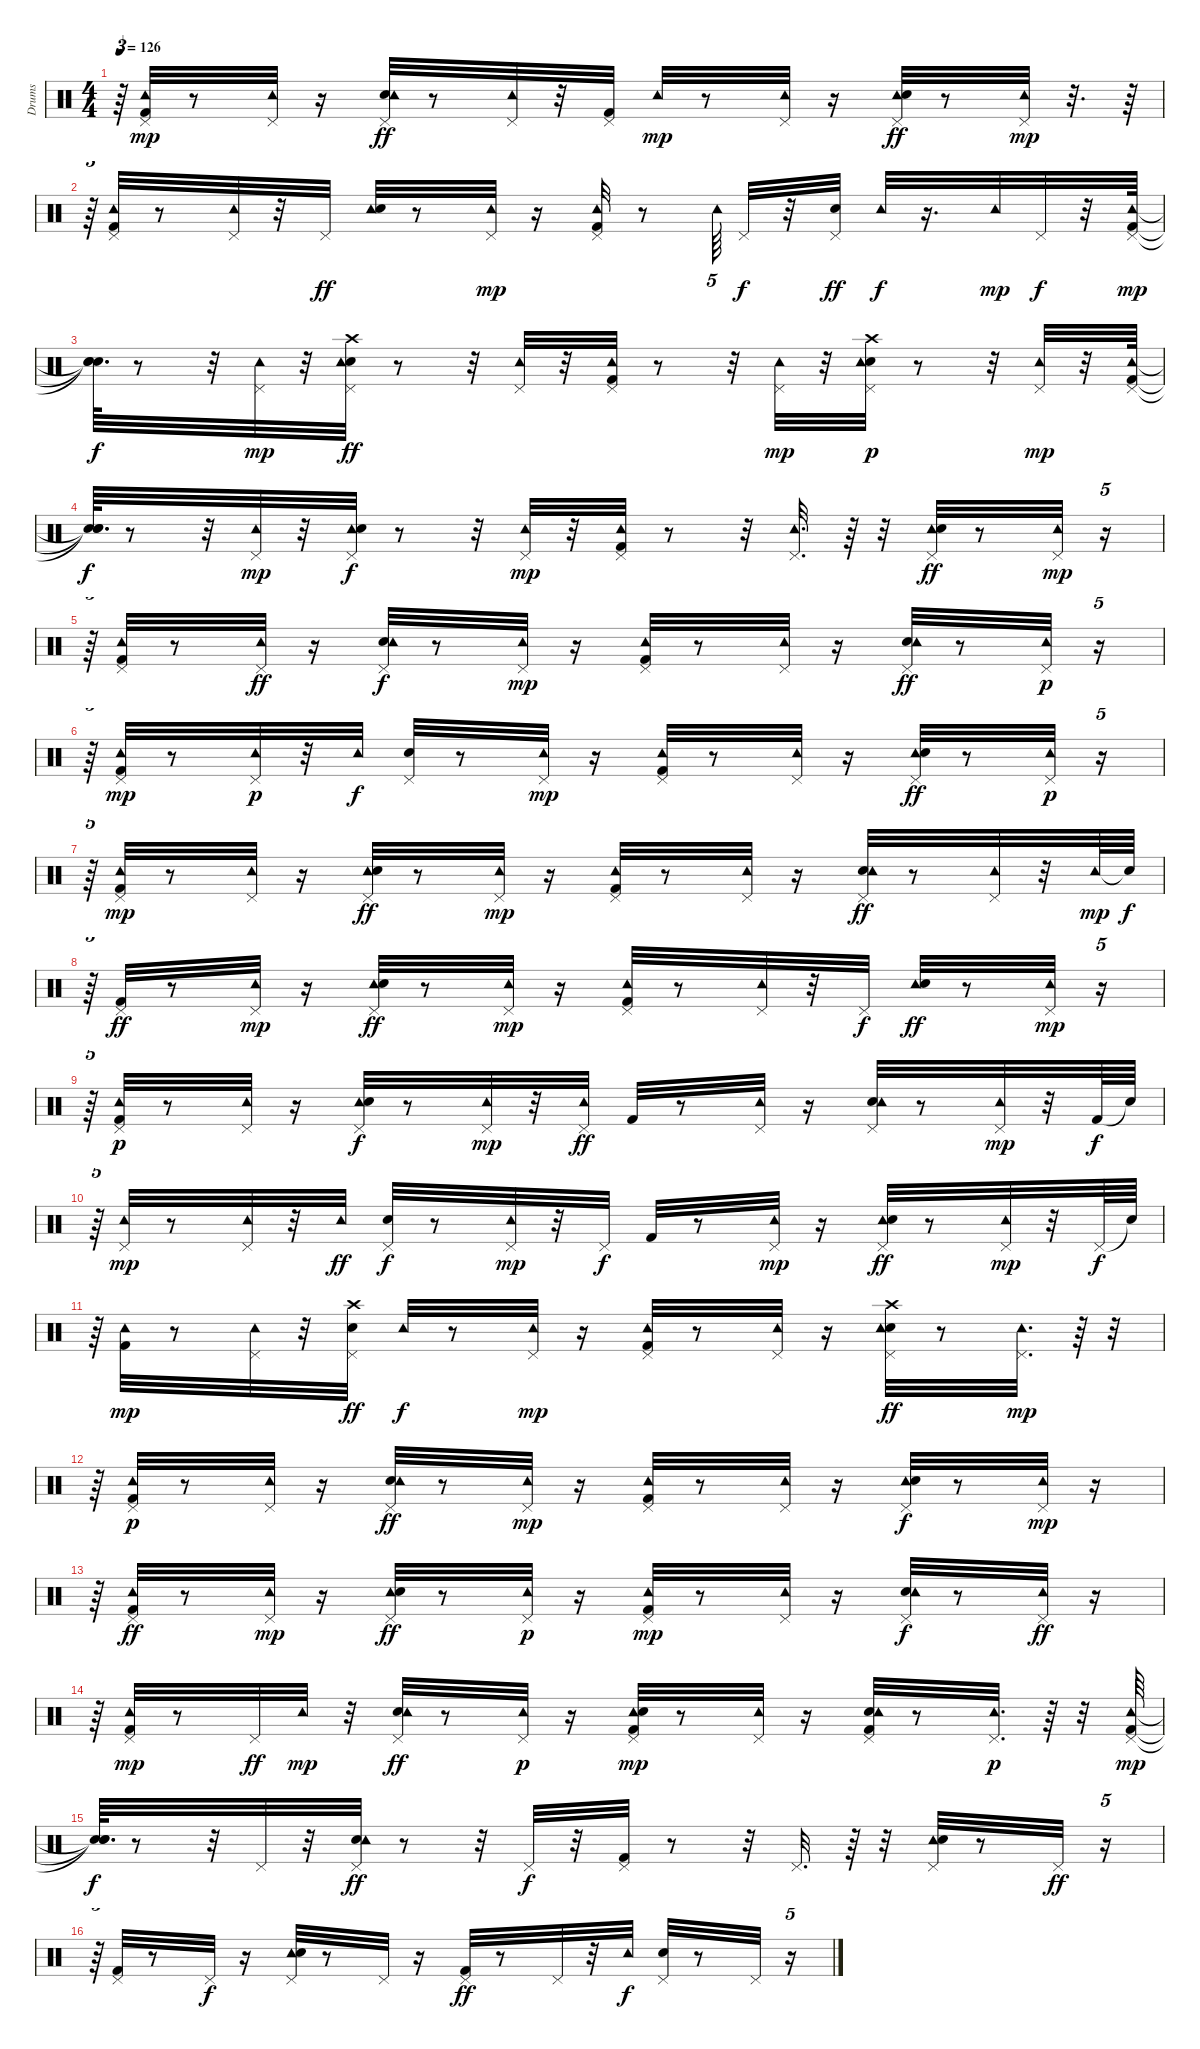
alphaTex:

\track ("Drums" "Drums") {instrument percussion}
\staff {score}
\articulation defaults
\ts (4 4)
\tempo 126
\clef neutral
\ks c
r.64{tu (3 2) dy mp} ("Kick (hit) 2" "Pedal Hi-Hat (hit)" "Tambourine (hit)").32 r.8 ("Tambourine (hit)" "Pedal Hi-Hat (hit)").32 r.16 ("Electric Snare (hit)" "Tambourine (hit)" "Pedal Hi-Hat (hit)").32{dy ff} r.8 ("Tambourine (hit)" "Pedal Hi-Hat (hit)").32 r.32 ("Kick (hit) 2" "Pedal Hi-Hat (hit)").32 "Tambourine (hit)".32{dy mp} r.8 ("Pedal Hi-Hat (hit)" "Tambourine (hit)").32 r.16 ("Tambourine (hit)" "Pedal Hi-Hat (hit)" "Electric Snare (hit)").32{dy ff} r.8 ("Pedal Hi-Hat (hit)" "Tambourine (hit)").32{dy mp} r.32{d} r.64 |
r.64{tu (3 2)} ("Tambourine (hit)" "Kick (hit) 2" "Pedal Hi-Hat (hit)").32 r.8 ("Pedal Hi-Hat (hit)" "Tambourine (hit)").32 r.32 "Pedal Hi-Hat (hit)".32{dy ff} ("Tambourine (hit)" "Electric Snare (hit)").32 r.8 ("Pedal Hi-Hat (hit)" "Tambourine (hit)").32{dy mp} r.16 ("Tambourine (hit)" "Kick (hit) 2" "Pedal Hi-Hat (hit)").32 r.8 "Tambourine (hit)".64{tu (5 4)} "Pedal Hi-Hat (hit)".32{dy f} r.32 ("Electric Snare (hit)" "Pedal Hi-Hat (hit)").32{dy ff} "Tambourine (hit)".32{dy f} r.16{d} "Tambourine (hit)".32{dy mp} "Pedal Hi-Hat (hit)".32{dy f} r.32 ("Kick (hit) 2" "Pedal Hi-Hat (hit)" "Tambourine (hit)").64{dy mp} |
("Snare (hit)"{t} "Snare (hit)"{t} "Snare (hit)"{t}).64{d dy f} r.8 r.32 ("Pedal Hi-Hat (hit)" "Tambourine (hit)").32{dy mp} r.32 ("Crash high (hit)" "Electric Snare (hit)" "Tambourine (hit)" "Pedal Hi-Hat (hit)").32{dy ff} r.8 r.32 ("Tambourine (hit)" "Pedal Hi-Hat (hit)").32 r.32 ("Tambourine (hit)" "Kick (hit) 2" "Pedal Hi-Hat (hit)").32 r.8 r.32 ("Pedal Hi-Hat (hit)" "Tambourine (hit)").32{dy mp} r.32 ("Electric Snare (hit)" "Crash high (hit)" "Pedal Hi-Hat (hit)" "Tambourine (hit)").32{dy p} r.8 r.32 ("Tambourine (hit)" "Pedal Hi-Hat (hit)").32{dy mp} r.32 ("Kick (hit) 2" "Tambourine (hit)" "Pedal Hi-Hat (hit)").64 |
("Snare (hit)"{t} "Snare (hit)"{t} "Snare (hit)"{t}).64{d dy f} r.8 r.32 ("Tambourine (hit)" "Pedal Hi-Hat (hit)").32{dy mp} r.32 ("Pedal Hi-Hat (hit)" "Tambourine (hit)" "Electric Snare (hit)").32{dy f} r.8 r.32 ("Tambourine (hit)" "Pedal Hi-Hat (hit)").32{dy mp} r.32 ("Tambourine (hit)" "Pedal Hi-Hat (hit)" "Kick (hit) 2").32 r.8 r.32 ("Tambourine (hit)" "Pedal Hi-Hat (hit)").32{d} r.64 r.32 ("Tambourine (hit)" "Electric Snare (hit)" "Pedal Hi-Hat (hit)").32{dy ff} r.8 ("Pedal Hi-Hat (hit)" "Tambourine (hit)").32{dy mp} r.16{tu (5 4)} |
r.64{tu (5 4)} ("Kick (hit) 2" "Tambourine (hit)" "Pedal Hi-Hat (hit)").32 r.8 ("Tambourine (hit)" "Pedal Hi-Hat (hit)").32{dy ff} r.16 ("Electric Snare (hit)" "Tambourine (hit)" "Pedal Hi-Hat (hit)").32{dy f} r.8 ("Pedal Hi-Hat (hit)" "Tambourine (hit)").32{dy mp} r.16 ("Kick (hit) 2" "Tambourine (hit)" "Pedal Hi-Hat (hit)").32 r.8 ("Tambourine (hit)" "Pedal Hi-Hat (hit)").32 r.16 ("Electric Snare (hit)" "Tambourine (hit)" "Pedal Hi-Hat (hit)").32{dy ff} r.8 ("Tambourine (hit)" "Pedal Hi-Hat (hit)").32{dy p} r.16{tu (5 4)} |
r.64{tu (5 4)} ("Tambourine (hit)" "Kick (hit) 2" "Pedal Hi-Hat (hit)").32{dy mp} r.8 ("Tambourine (hit)" "Pedal Hi-Hat (hit)").32{dy p} r.32 "Tambourine (hit)".32{dy f} ("Pedal Hi-Hat (hit)" "Electric Snare (hit)").32 r.8 ("Tambourine (hit)" "Pedal Hi-Hat (hit)").32{dy mp} r.16 ("Pedal Hi-Hat (hit)" "Kick (hit) 2" "Tambourine (hit)").32 r.8 ("Tambourine (hit)" "Pedal Hi-Hat (hit)").32 r.16 ("Tambourine (hit)" "Pedal Hi-Hat (hit)" "Electric Snare (hit)").32{dy ff} r.8 ("Pedal Hi-Hat (hit)" "Tambourine (hit)").32{dy p} r.16{tu (5 4)} |
r.64{tu (5 4)} ("Tambourine (hit)" "Pedal Hi-Hat (hit)" "Kick (hit) 2").32{dy mp} r.8 ("Pedal Hi-Hat (hit)" "Tambourine (hit)").32 r.16 ("Tambourine (hit)" "Pedal Hi-Hat (hit)" "Electric Snare (hit)").32{dy ff} r.8 ("Pedal Hi-Hat (hit)" "Tambourine (hit)").32{dy mp} r.16 ("Tambourine (hit)" "Kick (hit) 2" "Pedal Hi-Hat (hit)").32 r.8 ("Pedal Hi-Hat (hit)" "Tambourine (hit)").32 r.16 ("Electric Snare (hit)" "Pedal Hi-Hat (hit)" "Tambourine (hit)").32{dy ff} r.8 ("Tambourine (hit)" "Pedal Hi-Hat (hit)").32 r.32 "Tambourine (hit)".64{dy mp} "Snare (hit)"{t}.64{dy f} |
r.64{tu (5 4)} ("Kick (hit) 2" "Pedal Hi-Hat (hit)").32{dy ff} r.8 ("Tambourine (hit)" "Pedal Hi-Hat (hit)").32{dy mp} r.16 ("Tambourine (hit)" "Electric Snare (hit)" "Pedal Hi-Hat (hit)").32{dy ff} r.8 ("Tambourine (hit)" "Pedal Hi-Hat (hit)").32{dy mp} r.16 ("Pedal Hi-Hat (hit)" "Kick (hit) 2" "Tambourine (hit)").32 r.8 ("Pedal Hi-Hat (hit)" "Tambourine (hit)").32 r.32 "Pedal Hi-Hat (hit)".32{dy f} ("Tambourine (hit)" "Electric Snare (hit)").32{dy ff} r.8 ("Tambourine (hit)" "Pedal Hi-Hat (hit)").32{dy mp} r.16{tu (5 4)} |
r.64{tu (5 4)} ("Kick (hit) 2" "Tambourine (hit)" "Pedal Hi-Hat (hit)").32{dy p} r.8 ("Pedal Hi-Hat (hit)" "Tambourine (hit)").32 r.16 ("Pedal Hi-Hat (hit)" "Tambourine (hit)" "Electric Snare (hit)").32{dy f} r.8 ("Pedal Hi-Hat (hit)" "Tambourine (hit)").32{dy mp} r.32 ("Tambourine (hit)" "Pedal Hi-Hat (hit)").32{dy ff} "Kick (hit) 2".32 r.8 ("Tambourine (hit)" "Pedal Hi-Hat (hit)").32 r.16 ("Electric Snare (hit)" "Pedal Hi-Hat (hit)" "Tambourine (hit)").32 r.8 ("Pedal Hi-Hat (hit)" "Tambourine (hit)").32{dy mp} r.32 "Kick (hit) 2".64{dy f} "Snare (hit)"{t}.64 |
r.64{tu (5 4)} ("Tambourine (hit)" "Pedal Hi-Hat (hit)").32{dy mp} r.8 ("Pedal Hi-Hat (hit)" "Tambourine (hit)").32 r.32 "Tambourine (hit)".32{dy ff} ("Electric Snare (hit)" "Pedal Hi-Hat (hit)").32{dy f} r.8 ("Pedal Hi-Hat (hit)" "Tambourine (hit)").32{dy mp} r.32 "Pedal Hi-Hat (hit)".32{dy f} "Kick (hit) 2".32 r.8 ("Tambourine (hit)" "Pedal Hi-Hat (hit)").32{dy mp} r.16 ("Tambourine (hit)" "Electric Snare (hit)" "Pedal Hi-Hat (hit)").32{dy ff} r.8 ("Tambourine (hit)" "Pedal Hi-Hat (hit)").32{dy mp} r.32 "Pedal Hi-Hat (hit)".64{dy f} "Snare (hit)"{t}.64 |
r.64{tu (5 4)} ("Kick (hit) 2" "Tambourine (hit)").32{dy mp} r.8 ("Pedal Hi-Hat (hit)" "Tambourine (hit)").32 r.32 ("Pedal Hi-Hat (hit)" "Crash high (hit)" "Electric Snare (hit)").32{dy ff} "Tambourine (hit)".32{dy f} r.8 ("Tambourine (hit)" "Pedal Hi-Hat (hit)").32{dy mp} r.16 ("Pedal Hi-Hat (hit)" "Tambourine (hit)" "Kick (hit) 2").32 r.8 ("Pedal Hi-Hat (hit)" "Tambourine (hit)").32 r.16 ("Electric Snare (hit)" "Crash high (hit)" "Tambourine (hit)" "Pedal Hi-Hat (hit)").32{dy ff} r.8 ("Pedal Hi-Hat (hit)" "Tambourine (hit)").32{d dy mp} r.64 r.32 |
r.64 ("Pedal Hi-Hat (hit)" "Tambourine (hit)" "Kick (hit) 2").32{dy p} r.8 ("Tambourine (hit)" "Pedal Hi-Hat (hit)").32 r.16 ("Electric Snare (hit)" "Tambourine (hit)" "Pedal Hi-Hat (hit)").32{dy ff} r.8 ("Pedal Hi-Hat (hit)" "Tambourine (hit)").32{dy mp} r.16 ("Pedal Hi-Hat (hit)" "Tambourine (hit)" "Kick (hit) 2").32 r.8 ("Tambourine (hit)" "Pedal Hi-Hat (hit)").32 r.16 ("Pedal Hi-Hat (hit)" "Tambourine (hit)" "Electric Snare (hit)").32{dy f} r.8 ("Tambourine (hit)" "Pedal Hi-Hat (hit)").32{dy mp} r.16 |
r.64 ("Tambourine (hit)" "Kick (hit) 2" "Pedal Hi-Hat (hit)").32{dy ff} r.8 ("Pedal Hi-Hat (hit)" "Tambourine (hit)").32{dy mp} r.16 ("Pedal Hi-Hat (hit)" "Tambourine (hit)" "Electric Snare (hit)").32{dy ff} r.8 ("Tambourine (hit)" "Pedal Hi-Hat (hit)").32{dy p} r.16 ("Pedal Hi-Hat (hit)" "Tambourine (hit)" "Kick (hit) 2").32{dy mp} r.8 ("Pedal Hi-Hat (hit)" "Tambourine (hit)").32 r.16 ("Pedal Hi-Hat (hit)" "Electric Snare (hit)" "Tambourine (hit)").32{dy f} r.8 ("Tambourine (hit)" "Pedal Hi-Hat (hit)").32{dy ff} r.16 |
r.64 ("Kick (hit) 2" "Pedal Hi-Hat (hit)" "Tambourine (hit)").32{dy mp} r.8 "Pedal Hi-Hat (hit)".32{dy ff} "Tambourine (hit)".32{dy mp} r.32 ("Pedal Hi-Hat (hit)" "Electric Snare (hit)" "Tambourine (hit)").32{dy ff} r.8 ("Pedal Hi-Hat (hit)" "Tambourine (hit)").32{dy p} r.16 ("Tambourine (hit)" "Electric Snare (hit)" "Pedal Hi-Hat (hit)" "Kick (hit) 2").32{dy mp} r.8 ("Tambourine (hit)" "Pedal Hi-Hat (hit)").32 r.16 ("Electric Snare (hit)" "Kick (hit) 2" "Tambourine (hit)" "Pedal Hi-Hat (hit)").32 r.8 ("Tambourine (hit)" "Pedal Hi-Hat (hit)").32{d dy p} r.64 r.32 ("Tambourine (hit)" "Kick (hit) 2" "Pedal Hi-Hat (hit)").64{dy mp} |
("Snare (hit)"{t} "Snare (hit)"{t} "Snare (hit)"{t}).64{d dy f} r.8 r.32 "Pedal Hi-Hat (hit)".32 r.32 ("Electric Snare (hit)" "Tambourine (hit)" "Pedal Hi-Hat (hit)").32{dy ff} r.8 r.32 "Pedal Hi-Hat (hit)".32{dy f} r.32 ("Pedal Hi-Hat (hit)" "Kick (hit) 2").32 r.8 r.32 "Pedal Hi-Hat (hit)".32{d} r.64 r.32 ("Tambourine (hit)" "Pedal Hi-Hat (hit)" "Electric Snare (hit)").32 r.8 "Pedal Hi-Hat (hit)".32{dy ff} r.16{tu (5 4)} |
r.64{tu (5 4)} ("Pedal Hi-Hat (hit)" "Kick (hit) 2").32 r.8 "Pedal Hi-Hat (hit)".32{dy f} r.16 ("Tambourine (hit)" "Pedal Hi-Hat (hit)" "Electric Snare (hit)").32 r.8 "Pedal Hi-Hat (hit)".32 r.16 ("Pedal Hi-Hat (hit)" "Kick (hit) 2").32{dy ff} r.8 "Pedal Hi-Hat (hit)".32 r.32 "Tambourine (hit)".32{dy f} ("Electric Snare (hit)" "Pedal Hi-Hat (hit)").32 r.8 "Pedal Hi-Hat (hit)".32 r.16{tu (5 4)}
